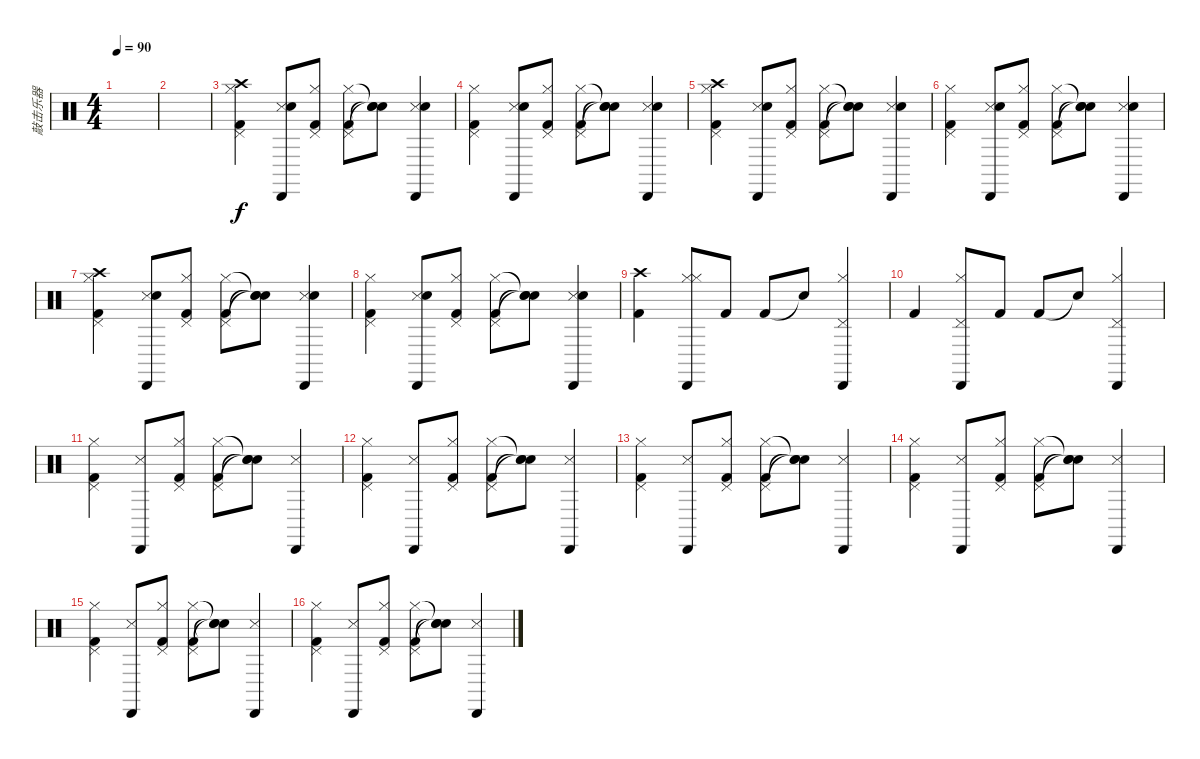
\track ("敲击乐器" "敲击乐器") {instrument percussion}
\staff {score}
\articulation defaults
\ts (4 4)
\tempo 90
\clef neutral
\ks c
|
|
("Crash high (hit)" "Hi-Hat (closed)" "Pedal Hi-Hat (hit)" "Kick (hit) 2").4 ("Snare (side stick) 3" "Electric Snare (hit)" "Cabasa (hit)").8 ("Hi-Hat (closed)" "Pedal Hi-Hat (hit)" "Kick (hit) 2").8 ("Hi-Hat (closed)" "Pedal Hi-Hat (hit)" "Kick (hit) 2").8 ("Snare (hit)"{t} "Snare (hit)"{t} "Snare (hit)"{t}).8 ("Snare (side stick) 3" "Electric Snare (hit)" "Cabasa (hit)").4 |
("Hi-Hat (closed)" "Pedal Hi-Hat (hit)" "Kick (hit) 2").4 ("Snare (side stick) 3" "Electric Snare (hit)" "Cabasa (hit)").8 ("Hi-Hat (closed)" "Pedal Hi-Hat (hit)" "Kick (hit) 2").8 ("Hi-Hat (closed)" "Pedal Hi-Hat (hit)" "Kick (hit) 2").8 ("Snare (hit)"{t} "Snare (hit)"{t} "Snare (hit)"{t}).8 ("Snare (side stick) 3" "Electric Snare (hit)" "Cabasa (hit)").4 |
("Crash high (hit)" "Hi-Hat (closed)" "Pedal Hi-Hat (hit)" "Kick (hit) 2").4 ("Snare (side stick) 3" "Electric Snare (hit)" "Cabasa (hit)").8 ("Hi-Hat (closed)" "Pedal Hi-Hat (hit)" "Kick (hit) 2").8 ("Hi-Hat (closed)" "Pedal Hi-Hat (hit)" "Kick (hit) 2").8 ("Snare (hit)"{t} "Snare (hit)"{t} "Snare (hit)"{t}).8 ("Snare (side stick) 3" "Electric Snare (hit)" "Cabasa (hit)").4 |
("Hi-Hat (closed)" "Pedal Hi-Hat (hit)" "Kick (hit) 2").4 ("Snare (side stick) 3" "Electric Snare (hit)" "Cabasa (hit)").8 ("Hi-Hat (closed)" "Pedal Hi-Hat (hit)" "Kick (hit) 2").8 ("Hi-Hat (closed)" "Pedal Hi-Hat (hit)" "Kick (hit) 2").8 ("Snare (hit)"{t} "Snare (hit)"{t} "Snare (hit)"{t}).8 ("Snare (side stick) 3" "Electric Snare (hit)" "Cabasa (hit)").4 |
("Crash high (hit)" "Hi-Hat (closed)" "Pedal Hi-Hat (hit)" "Kick (hit) 2").4 ("Snare (side stick) 3" "Electric Snare (hit)" "Cabasa (hit)").8 ("Hi-Hat (closed)" "Pedal Hi-Hat (hit)" "Kick (hit) 2").8 ("Hi-Hat (closed)" "Pedal Hi-Hat (hit)" "Kick (hit) 2").8 ("Snare (hit)"{t} "Snare (hit)"{t} "Snare (hit)"{t}).8 ("Snare (side stick) 3" "Electric Snare (hit)" "Cabasa (hit)").4 |
("Hi-Hat (closed)" "Pedal Hi-Hat (hit)" "Kick (hit) 2").4 ("Snare (side stick) 3" "Electric Snare (hit)" "Cabasa (hit)").8 ("Hi-Hat (closed)" "Pedal Hi-Hat (hit)" "Kick (hit) 2").8 ("Hi-Hat (closed)" "Pedal Hi-Hat (hit)" "Kick (hit) 2").8 ("Snare (hit)"{t} "Snare (hit)"{t} "Snare (hit)"{t}).8 ("Snare (side stick) 3" "Electric Snare (hit)" "Cabasa (hit)").4 |
("Crash high (hit)" "Kick (hit) 2").4 ("Hi-Hat (closed)" "Cabasa (hit)" "Hi-Hat (closed)").8 "Kick (hit) 2".8 "Kick (hit) 2".8 "Snare (hit)"{t}.8 ("Hi-Hat (closed)" "Cabasa (hit)" "Pedal Hi-Hat (hit)").4 |
"Kick (hit) 2".4 ("Hi-Hat (closed)" "Cabasa (hit)" "Pedal Hi-Hat (hit)").8 "Kick (hit) 2".8 "Kick (hit) 2".8 "Snare (hit)"{t}.8 ("Hi-Hat (closed)" "Cabasa (hit)" "Pedal Hi-Hat (hit)").4 |
("Hi-Hat (closed)" "Pedal Hi-Hat (hit)" "Kick (hit) 2").4 ("Snare (side stick) 3" "Cabasa (hit)").8 ("Hi-Hat (closed)" "Pedal Hi-Hat (hit)" "Kick (hit) 2").8 ("Hi-Hat (closed)" "Pedal Hi-Hat (hit)" "Kick (hit) 2").8 ("Snare (hit)"{t} "Snare (hit)"{t} "Snare (hit)"{t}).8 ("Snare (side stick) 3" "Cabasa (hit)").4 |
("Hi-Hat (closed)" "Pedal Hi-Hat (hit)" "Kick (hit) 2").4 ("Snare (side stick) 3" "Cabasa (hit)").8 ("Hi-Hat (closed)" "Pedal Hi-Hat (hit)" "Kick (hit) 2").8 ("Hi-Hat (closed)" "Pedal Hi-Hat (hit)" "Kick (hit) 2").8 ("Snare (hit)"{t} "Snare (hit)"{t} "Snare (hit)"{t}).8 ("Snare (side stick) 3" "Cabasa (hit)").4 |
("Hi-Hat (closed)" "Pedal Hi-Hat (hit)" "Kick (hit) 2").4 ("Snare (side stick) 3" "Cabasa (hit)").8 ("Hi-Hat (closed)" "Pedal Hi-Hat (hit)" "Kick (hit) 2").8 ("Hi-Hat (closed)" "Pedal Hi-Hat (hit)" "Kick (hit) 2").8 ("Snare (hit)"{t} "Snare (hit)"{t} "Snare (hit)"{t}).8 ("Snare (side stick) 3" "Cabasa (hit)").4 |
("Hi-Hat (closed)" "Pedal Hi-Hat (hit)" "Kick (hit) 2").4 ("Snare (side stick) 3" "Cabasa (hit)").8 ("Hi-Hat (closed)" "Pedal Hi-Hat (hit)" "Kick (hit) 2").8 ("Hi-Hat (closed)" "Pedal Hi-Hat (hit)" "Kick (hit) 2").8 ("Snare (hit)"{t} "Snare (hit)"{t} "Snare (hit)"{t}).8 ("Snare (side stick) 3" "Cabasa (hit)").4 |
("Hi-Hat (closed)" "Pedal Hi-Hat (hit)" "Kick (hit) 2").4 ("Snare (side stick) 3" "Cabasa (hit)").8 ("Hi-Hat (closed)" "Pedal Hi-Hat (hit)" "Kick (hit) 2").8 ("Hi-Hat (closed)" "Pedal Hi-Hat (hit)" "Kick (hit) 2").8 ("Snare (hit)"{t} "Snare (hit)"{t} "Snare (hit)"{t}).8 ("Snare (side stick) 3" "Cabasa (hit)").4 |
("Hi-Hat (closed)" "Pedal Hi-Hat (hit)" "Kick (hit) 2").4 ("Snare (side stick) 3" "Cabasa (hit)").8 ("Hi-Hat (closed)" "Pedal Hi-Hat (hit)" "Kick (hit) 2").8 ("Hi-Hat (closed)" "Pedal Hi-Hat (hit)" "Kick (hit) 2").8 ("Snare (hit)"{t} "Snare (hit)"{t} "Snare (hit)"{t}).8 ("Snare (side stick) 3" "Cabasa (hit)").4
